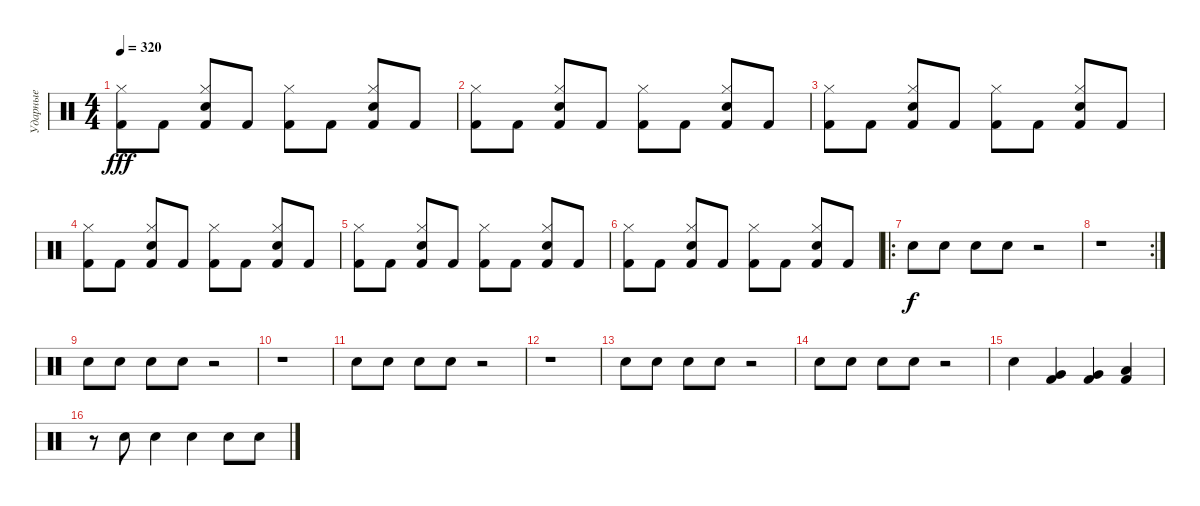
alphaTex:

\track ("Ударные" "Ударные") {instrument percussion}
\staff {score}
\articulation defaults
\ts (4 4)
\tempo 320
\clef neutral
\ks c
("Kick (hit) 2" "Hi-Hat (closed)").8{dy fff} "Kick (hit) 2".8 ("Kick (hit) 2" "Snare (hit) 2" "Hi-Hat (closed)").8 "Kick (hit) 2".8 ("Kick (hit) 2" "Hi-Hat (closed)").8 "Kick (hit) 2".8 ("Kick (hit) 2" "Snare (hit) 2" "Hi-Hat (closed)").8 "Kick (hit) 2".8 |
("Kick (hit) 2" "Hi-Hat (closed)").8 "Kick (hit) 2".8 ("Kick (hit) 2" "Snare (hit) 2" "Hi-Hat (closed)").8 "Kick (hit) 2".8 ("Kick (hit) 2" "Hi-Hat (closed)").8 "Kick (hit) 2".8 ("Kick (hit) 2" "Snare (hit) 2" "Hi-Hat (closed)").8 "Kick (hit) 2".8 |
("Kick (hit) 2" "Hi-Hat (closed)").8 "Kick (hit) 2".8 ("Kick (hit) 2" "Snare (hit) 2" "Hi-Hat (closed)").8 "Kick (hit) 2".8 ("Kick (hit) 2" "Hi-Hat (closed)").8 "Kick (hit) 2".8 ("Kick (hit) 2" "Snare (hit) 2" "Hi-Hat (closed)").8 "Kick (hit) 2".8 |
("Kick (hit) 2" "Hi-Hat (closed)").8 "Kick (hit) 2".8 ("Kick (hit) 2" "Snare (hit) 2" "Hi-Hat (closed)").8 "Kick (hit) 2".8 ("Kick (hit) 2" "Hi-Hat (closed)").8 "Kick (hit) 2".8 ("Kick (hit) 2" "Snare (hit) 2" "Hi-Hat (closed)").8 "Kick (hit) 2".8 |
("Kick (hit) 2" "Hi-Hat (closed)").8 "Kick (hit) 2".8 ("Kick (hit) 2" "Snare (hit) 2" "Hi-Hat (closed)").8 "Kick (hit) 2".8 ("Kick (hit) 2" "Hi-Hat (closed)").8 "Kick (hit) 2".8 ("Kick (hit) 2" "Snare (hit) 2" "Hi-Hat (closed)").8 "Kick (hit) 2".8 |
("Kick (hit) 2" "Hi-Hat (closed)").8 "Kick (hit) 2".8 ("Kick (hit) 2" "Snare (hit) 2" "Hi-Hat (closed)").8 "Kick (hit) 2".8 ("Kick (hit) 2" "Hi-Hat (closed)").8 "Kick (hit) 2".8 ("Kick (hit) 2" "Snare (hit) 2" "Hi-Hat (closed)").8 "Kick (hit) 2".8 |
\ro "Snare (hit) 2".8{dy f} "Snare (hit) 2".8 "Snare (hit) 2".8 "Snare (hit) 2".8
r.2 |
\rc 2
r.1 |
"Snare (hit) 2".8 "Snare (hit) 2".8 "Snare (hit) 2".8 "Snare (hit) 2".8 r.2 |
r.1 |
"Snare (hit) 2".8 "Snare (hit) 2".8 "Snare (hit) 2".8 "Snare (hit) 2".8 r.2 |
r.1 |
"Snare (hit) 2".8 "Snare (hit) 2".8 "Snare (hit) 2".8 "Snare (hit) 2".8 r.2 |
"Snare (hit) 2".8 "Snare (hit) 2".8 "Snare (hit) 2".8 "Snare (hit) 2".8 r.2 |
"Snare (hit) 2".4 ("Kick (hit) 2" "Very Low Tom (hit)").4 ("Kick (hit) 2" "Very Low Tom (hit)").4 ("Kick (hit) 2" "Low Floor Tom (hit)").4 |
r.8 "Snare (hit) 2".8 "Snare (hit) 2".4 "Snare (hit) 2".4 "Snare (hit) 2".8 "Snare (hit) 2".8
